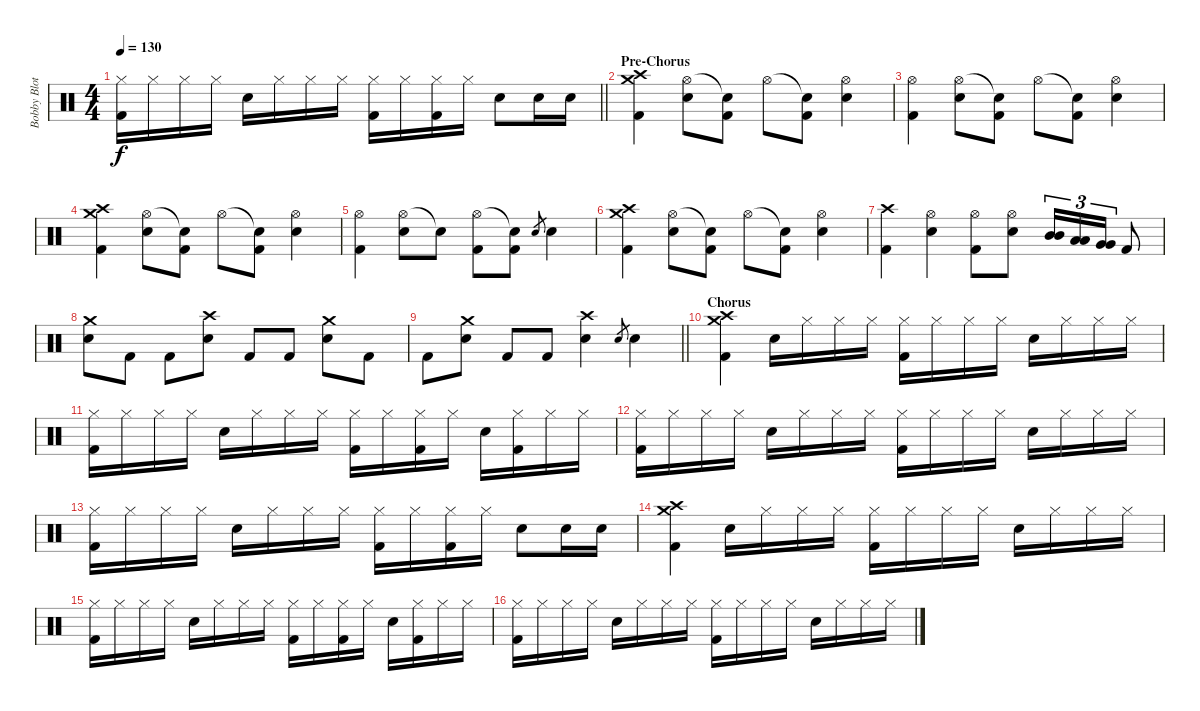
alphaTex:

\track ("Bobby Blotzer - Drums" "Bobby Blot") {instrument percussion}
\staff {score}
\articulation defaults
\ts (4 4)
\tempo 130
\clef neutral
\barLineRight lightlight
\ks c
("Hi-Hat (closed)" "Kick (hit) 2").16{dy f} "Hi-Hat (closed)".16 "Hi-Hat (closed)".16 "Hi-Hat (closed)".16 "Snare (hit) 2".16 "Hi-Hat (closed)".16 "Hi-Hat (closed)".16 "Hi-Hat (closed)".16 ("Hi-Hat (closed)" "Kick (hit) 2").16 "Hi-Hat (closed)".16 ("Hi-Hat (closed)" "Kick (hit) 2").16 "Hi-Hat (closed)".16 "Snare (hit) 2".8 "Snare (hit) 2".16 "Snare (hit) 2".16 |
\section ("" "Pre-Chorus")
("Crash medium (hit)" "Crash high (hit)" "Kick (hit) 2").4 ("Hi-Hat (open)" "Snare (hit) 2").8 ("Snare (hit)"{t} "Kick (hit) 2").8 "Hi-Hat (open)".8 ("Snare (hit)"{t} "Kick (hit) 2").8 ("Hi-Hat (open)" "Snare (hit) 2").4 |
("Hi-Hat (open)" "Kick (hit) 2").4 ("Hi-Hat (open)" "Snare (hit) 2").8 ("Snare (hit)"{t} "Kick (hit) 2").8 "Hi-Hat (open)".8 ("Snare (hit)"{t} "Kick (hit) 2").8 ("Hi-Hat (open)" "Snare (hit) 2").4 |
("Crash medium (hit)" "Crash high (hit)" "Kick (hit) 2").4 ("Hi-Hat (open)" "Snare (hit) 2").8 ("Snare (hit)"{t} "Kick (hit) 2").8 "Hi-Hat (open)".8 ("Snare (hit)"{t} "Kick (hit) 2").8 ("Hi-Hat (open)" "Snare (hit) 2").4 |
("Hi-Hat (open)" "Kick (hit) 2").4 ("Hi-Hat (open)" "Snare (hit) 2").8 "Snare (hit)"{t}.8 ("Hi-Hat (open)" "Kick (hit) 2").8 ("Snare (hit)"{t} "Kick (hit) 2").8 "Snare (hit) 2".8{gr} "Snare (hit) 2".4 |
("Crash medium (hit)" "Crash high (hit)" "Kick (hit) 2").4 ("Hi-Hat (open)" "Snare (hit) 2").8 ("Snare (hit)"{t} "Kick (hit) 2").8 "Hi-Hat (open)".8 ("Snare (hit)"{t} "Kick (hit) 2").8 ("Hi-Hat (open)" "Snare (hit) 2").4 |
("Crash high (hit)" "Kick (hit) 2").4 ("Hi-Hat (open)" "Snare (hit) 2").4{beam merge} ("Hi-Hat (open)" "Kick (hit) 2").8 ("Hi-Hat (open)" "Snare (hit) 2").8 ("Mid Tom (hit)" "Mid Tom (hit)").16{tu (3 2)} ("Low Tom (hit)" "Low Tom (hit)").16{tu (3 2)} ("Very Low Tom (hit)" "Very Low Tom (hit)").16{tu (3 2)} "Kick (hit) 2".8 |
("Crash medium (hit)" "Snare (hit) 2").8 "Kick (hit) 2".8 "Kick (hit) 2".8 ("Crash high (hit)" "Snare (hit) 2").8 "Kick (hit) 2".8 "Kick (hit) 2".8 ("Crash medium (hit)" "Snare (hit) 2").8 "Kick (hit) 2".8 |
\barLineRight lightlight "Kick (hit) 2".8
("Crash medium (hit)" "Snare (hit) 2").8 "Kick (hit) 2".8 "Kick (hit) 2".8 ("Crash high (hit)" "Snare (hit) 2").4 "Snare (hit) 2".8{gr} "Snare (hit) 2".4 |
\section ("" "Chorus")
("Crash medium (hit)" "Crash high (hit)" "Kick (hit) 2").4 "Snare (hit) 2".16 "Hi-Hat (closed)".16 "Hi-Hat (closed)".16 "Hi-Hat (closed)".16 ("Hi-Hat (closed)" "Kick (hit) 2").16 "Hi-Hat (closed)".16 "Hi-Hat (closed)".16 "Hi-Hat (closed)".16 "Snare (hit) 2".16 "Hi-Hat (closed)".16 "Hi-Hat (closed)".16 "Hi-Hat (closed)".16 |
("Hi-Hat (closed)" "Kick (hit) 2").16 "Hi-Hat (closed)".16 "Hi-Hat (closed)".16 "Hi-Hat (closed)".16 "Snare (hit) 2".16 "Hi-Hat (closed)".16 "Hi-Hat (closed)".16 "Hi-Hat (closed)".16 ("Hi-Hat (closed)" "Kick (hit) 2").16 "Hi-Hat (closed)".16 ("Hi-Hat (closed)" "Kick (hit) 2").16 "Hi-Hat (closed)".16 "Snare (hit) 2".16 ("Hi-Hat (closed)" "Kick (hit) 2").16 "Hi-Hat (closed)".16 "Hi-Hat (closed)".16 |
("Hi-Hat (closed)" "Kick (hit) 2").16 "Hi-Hat (closed)".16 "Hi-Hat (closed)".16 "Hi-Hat (closed)".16 "Snare (hit) 2".16 "Hi-Hat (closed)".16 "Hi-Hat (closed)".16 "Hi-Hat (closed)".16 ("Hi-Hat (closed)" "Kick (hit) 2").16 "Hi-Hat (closed)".16 "Hi-Hat (closed)".16 "Hi-Hat (closed)".16 "Snare (hit) 2".16 "Hi-Hat (closed)".16 "Hi-Hat (closed)".16 "Hi-Hat (closed)".16 |
("Hi-Hat (closed)" "Kick (hit) 2").16 "Hi-Hat (closed)".16 "Hi-Hat (closed)".16 "Hi-Hat (closed)".16 "Snare (hit) 2".16 "Hi-Hat (closed)".16 "Hi-Hat (closed)".16 "Hi-Hat (closed)".16 ("Hi-Hat (closed)" "Kick (hit) 2").16 "Hi-Hat (closed)".16 ("Hi-Hat (closed)" "Kick (hit) 2").16 "Hi-Hat (closed)".16 "Snare (hit) 2".8 "Snare (hit) 2".16 "Snare (hit) 2".16 |
("Crash medium (hit)" "Crash high (hit)" "Kick (hit) 2").4 "Snare (hit) 2".16 "Hi-Hat (closed)".16 "Hi-Hat (closed)".16 "Hi-Hat (closed)".16 ("Hi-Hat (closed)" "Kick (hit) 2").16 "Hi-Hat (closed)".16 "Hi-Hat (closed)".16 "Hi-Hat (closed)".16 "Snare (hit) 2".16 "Hi-Hat (closed)".16 "Hi-Hat (closed)".16 "Hi-Hat (closed)".16 |
("Hi-Hat (closed)" "Kick (hit) 2").16 "Hi-Hat (closed)".16 "Hi-Hat (closed)".16 "Hi-Hat (closed)".16 "Snare (hit) 2".16 "Hi-Hat (closed)".16 "Hi-Hat (closed)".16 "Hi-Hat (closed)".16 ("Hi-Hat (closed)" "Kick (hit) 2").16 "Hi-Hat (closed)".16 ("Hi-Hat (closed)" "Kick (hit) 2").16 "Hi-Hat (closed)".16 "Snare (hit) 2".16 ("Hi-Hat (closed)" "Kick (hit) 2").16 "Hi-Hat (closed)".16 "Hi-Hat (closed)".16 |
("Hi-Hat (closed)" "Kick (hit) 2").16 "Hi-Hat (closed)".16 "Hi-Hat (closed)".16 "Hi-Hat (closed)".16 "Snare (hit) 2".16 "Hi-Hat (closed)".16 "Hi-Hat (closed)".16 "Hi-Hat (closed)".16 ("Hi-Hat (closed)" "Kick (hit) 2").16 "Hi-Hat (closed)".16 "Hi-Hat (closed)".16 "Hi-Hat (closed)".16 "Snare (hit) 2".16 "Hi-Hat (closed)".16 "Hi-Hat (closed)".16 "Hi-Hat (closed)".16
